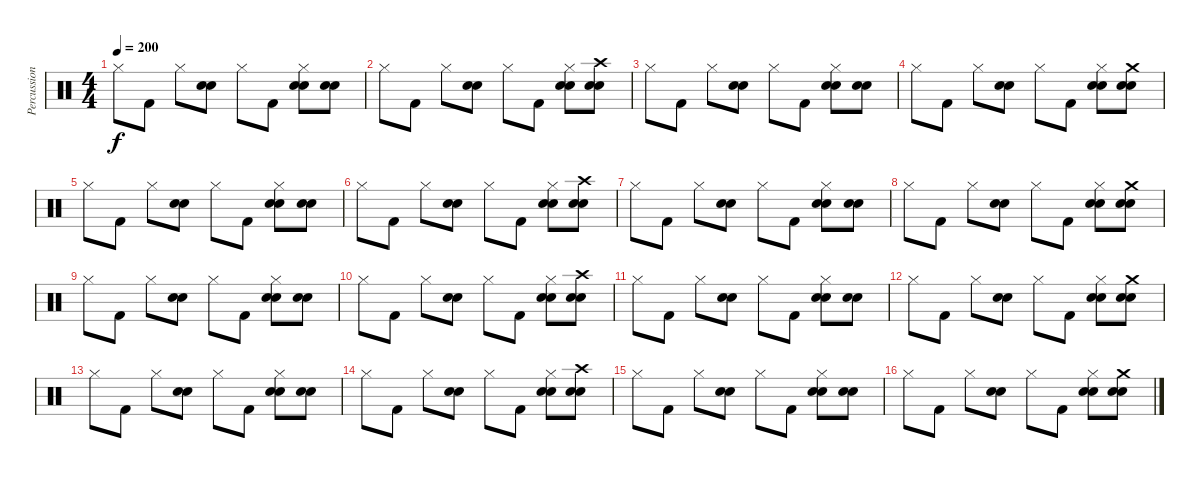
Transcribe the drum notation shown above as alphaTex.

\track ("Percussions" "Percussion") {instrument percussion}
\staff {score}
\articulation defaults
\ts (4 4)
\tempo 200
\clef neutral
\ks c "Hi-Hat (closed)".8{dy f} "Kick (hit) 2".8 "Hi-Hat (closed)".8
("Snare (hit) 2" "Electric Snare (hit)").8 "Hi-Hat (closed)".8 "Kick (hit) 2".8 ("Hi-Hat (closed)" "Snare (hit) 2" "Electric Snare (hit)").8 ("Snare (hit) 2" "Electric Snare (hit)").8 |
"Hi-Hat (closed)".8 "Kick (hit) 2".8 "Hi-Hat (closed)".8 ("Snare (hit) 2" "Electric Snare (hit)").8 "Hi-Hat (closed)".8 "Kick (hit) 2".8 ("Hi-Hat (closed)" "Snare (hit) 2" "Electric Snare (hit)").8 ("Crash high (hit)" "Snare (hit) 2" "Electric Snare (hit)").8 |
"Hi-Hat (closed)".8 "Kick (hit) 2".8 "Hi-Hat (closed)".8 ("Snare (hit) 2" "Electric Snare (hit)").8 "Hi-Hat (closed)".8 "Kick (hit) 2".8 ("Hi-Hat (closed)" "Snare (hit) 2" "Electric Snare (hit)").8 ("Snare (hit) 2" "Electric Snare (hit)").8 |
"Hi-Hat (closed)".8 "Kick (hit) 2".8 "Hi-Hat (closed)".8 ("Snare (hit) 2" "Electric Snare (hit)").8 "Hi-Hat (closed)".8 "Kick (hit) 2".8 ("Hi-Hat (closed)" "Snare (hit) 2" "Electric Snare (hit)").8 ("Crash medium (hit)" "Snare (hit) 2" "Electric Snare (hit)").8 |
"Hi-Hat (closed)".8 "Kick (hit) 2".8 "Hi-Hat (closed)".8 ("Snare (hit) 2" "Electric Snare (hit)").8 "Hi-Hat (closed)".8 "Kick (hit) 2".8 ("Hi-Hat (closed)" "Snare (hit) 2" "Electric Snare (hit)").8 ("Snare (hit) 2" "Electric Snare (hit)").8 |
"Hi-Hat (closed)".8 "Kick (hit) 2".8 "Hi-Hat (closed)".8 ("Snare (hit) 2" "Electric Snare (hit)").8 "Hi-Hat (closed)".8 "Kick (hit) 2".8 ("Hi-Hat (closed)" "Snare (hit) 2" "Electric Snare (hit)").8 ("Crash high (hit)" "Snare (hit) 2" "Electric Snare (hit)").8 |
"Hi-Hat (closed)".8 "Kick (hit) 2".8 "Hi-Hat (closed)".8 ("Snare (hit) 2" "Electric Snare (hit)").8 "Hi-Hat (closed)".8 "Kick (hit) 2".8 ("Hi-Hat (closed)" "Snare (hit) 2" "Electric Snare (hit)").8 ("Snare (hit) 2" "Electric Snare (hit)").8 |
"Hi-Hat (closed)".8 "Kick (hit) 2".8 "Hi-Hat (closed)".8 ("Snare (hit) 2" "Electric Snare (hit)").8 "Hi-Hat (closed)".8 "Kick (hit) 2".8 ("Hi-Hat (closed)" "Snare (hit) 2" "Electric Snare (hit)").8 ("Crash medium (hit)" "Snare (hit) 2" "Electric Snare (hit)").8 |
"Hi-Hat (closed)".8 "Kick (hit) 2".8 "Hi-Hat (closed)".8 ("Snare (hit) 2" "Electric Snare (hit)").8 "Hi-Hat (closed)".8 "Kick (hit) 2".8 ("Hi-Hat (closed)" "Snare (hit) 2" "Electric Snare (hit)").8 ("Snare (hit) 2" "Electric Snare (hit)").8 |
"Hi-Hat (closed)".8 "Kick (hit) 2".8 "Hi-Hat (closed)".8 ("Snare (hit) 2" "Electric Snare (hit)").8 "Hi-Hat (closed)".8 "Kick (hit) 2".8 ("Hi-Hat (closed)" "Snare (hit) 2" "Electric Snare (hit)").8 ("Crash high (hit)" "Snare (hit) 2" "Electric Snare (hit)").8 |
"Hi-Hat (closed)".8 "Kick (hit) 2".8 "Hi-Hat (closed)".8 ("Snare (hit) 2" "Electric Snare (hit)").8 "Hi-Hat (closed)".8 "Kick (hit) 2".8 ("Hi-Hat (closed)" "Snare (hit) 2" "Electric Snare (hit)").8 ("Snare (hit) 2" "Electric Snare (hit)").8 |
"Hi-Hat (closed)".8 "Kick (hit) 2".8 "Hi-Hat (closed)".8 ("Snare (hit) 2" "Electric Snare (hit)").8 "Hi-Hat (closed)".8 "Kick (hit) 2".8 ("Hi-Hat (closed)" "Snare (hit) 2" "Electric Snare (hit)").8 ("Crash medium (hit)" "Snare (hit) 2" "Electric Snare (hit)").8 |
"Hi-Hat (closed)".8 "Kick (hit) 2".8 "Hi-Hat (closed)".8 ("Snare (hit) 2" "Electric Snare (hit)").8 "Hi-Hat (closed)".8 "Kick (hit) 2".8 ("Hi-Hat (closed)" "Snare (hit) 2" "Electric Snare (hit)").8 ("Snare (hit) 2" "Electric Snare (hit)").8 |
"Hi-Hat (closed)".8 "Kick (hit) 2".8 "Hi-Hat (closed)".8 ("Snare (hit) 2" "Electric Snare (hit)").8 "Hi-Hat (closed)".8 "Kick (hit) 2".8 ("Hi-Hat (closed)" "Snare (hit) 2" "Electric Snare (hit)").8 ("Crash high (hit)" "Snare (hit) 2" "Electric Snare (hit)").8 |
"Hi-Hat (closed)".8 "Kick (hit) 2".8 "Hi-Hat (closed)".8 ("Snare (hit) 2" "Electric Snare (hit)").8 "Hi-Hat (closed)".8 "Kick (hit) 2".8 ("Hi-Hat (closed)" "Snare (hit) 2" "Electric Snare (hit)").8 ("Snare (hit) 2" "Electric Snare (hit)").8 |
"Hi-Hat (closed)".8 "Kick (hit) 2".8 "Hi-Hat (closed)".8 ("Snare (hit) 2" "Electric Snare (hit)").8 "Hi-Hat (closed)".8 "Kick (hit) 2".8 ("Hi-Hat (closed)" "Snare (hit) 2" "Electric Snare (hit)").8 ("Crash medium (hit)" "Snare (hit) 2" "Electric Snare (hit)").8
